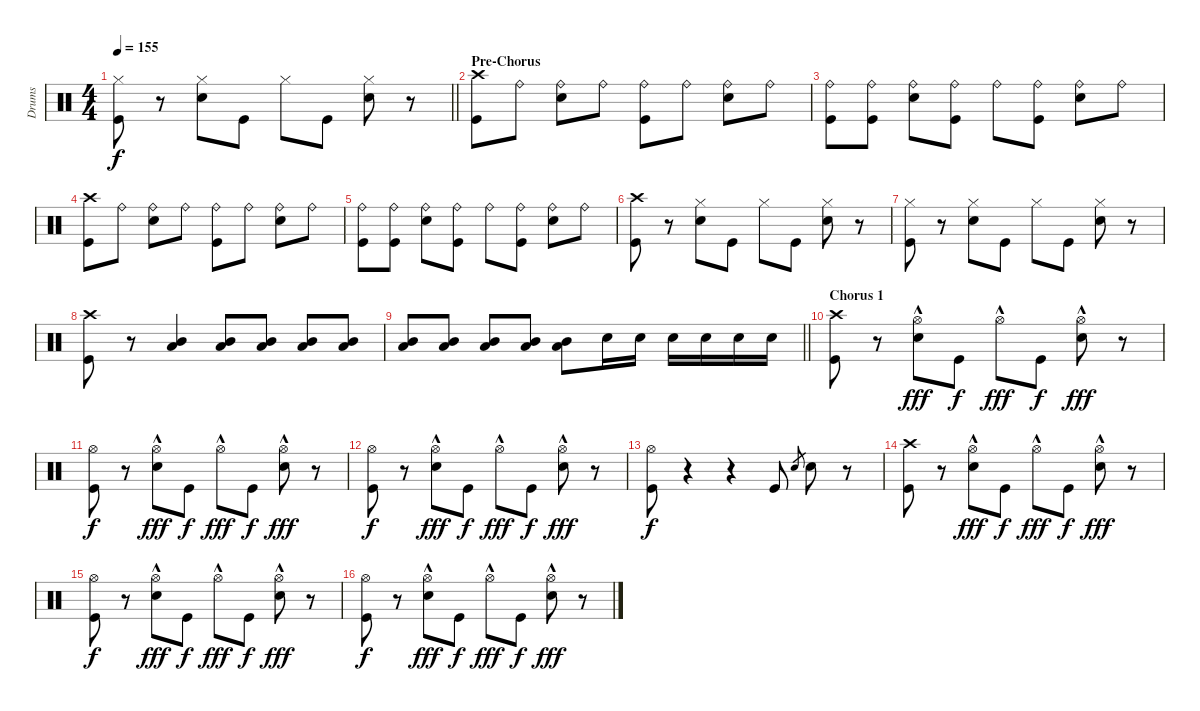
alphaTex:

\track ("Drums" "Drums") {instrument percussion}
\staff {score}
\articulation defaults
\ts (4 4)
\tempo 155
\clef neutral
\barLineRight lightlight
\ks c
("Hi-Hat (closed)" "Kick (hit)").8{dy f} r.8 ("Hi-Hat (closed)" "Snare (hit) 2").8 "Kick (hit)".8 "Hi-Hat (closed)".8 "Kick (hit)".8 ("Hi-Hat (closed)" "Snare (hit) 2").8 r.8 |
\section ("" "Pre-Chorus")
("Crash high (hit)" "Kick (hit)").8 "Ride (bell)".8 ("Ride (bell)" "Snare (hit) 2").8 "Ride (bell)".8 ("Ride (bell)" "Kick (hit)").8 "Ride (bell)".8 ("Ride (bell)" "Snare (hit) 2").8 "Ride (bell)".8 |
("Ride (bell)" "Kick (hit)").8 ("Ride (bell)" "Kick (hit)").8 ("Ride (bell)" "Snare (hit) 2").8 ("Ride (bell)" "Kick (hit)").8 "Ride (bell)".8 ("Ride (bell)" "Kick (hit)").8 ("Ride (bell)" "Snare (hit) 2").8 "Ride (bell)".8 |
("Crash high (hit)" "Kick (hit)").8 "Ride (bell)".8 ("Ride (bell)" "Snare (hit) 2").8 "Ride (bell)".8 ("Ride (bell)" "Kick (hit)").8 "Ride (bell)".8 ("Ride (bell)" "Snare (hit) 2").8 "Ride (bell)".8 |
("Ride (bell)" "Kick (hit)").8 ("Ride (bell)" "Kick (hit)").8 ("Ride (bell)" "Snare (hit) 2").8 ("Ride (bell)" "Kick (hit)").8 "Ride (bell)".8 ("Ride (bell)" "Kick (hit)").8 ("Ride (bell)" "Snare (hit) 2").8 "Ride (bell)".8 |
("Crash high (hit)" "Kick (hit)").8 r.8 ("Hi-Hat (closed)" "Snare (hit) 2").8 "Kick (hit)".8 "Hi-Hat (closed)".8 "Kick (hit)".8 ("Hi-Hat (closed)" "Snare (hit) 2").8 r.8 |
("Hi-Hat (closed)" "Kick (hit)").8 r.8 ("Hi-Hat (closed)" "Snare (hit) 2").8 "Kick (hit)".8 "Hi-Hat (closed)".8 "Kick (hit)".8 ("Hi-Hat (closed)" "Snare (hit) 2").8 r.8 |
("Crash high (hit)" "Kick (hit)").8 r.8 ("Mid Tom (hit)" "Low Floor Tom (hit)").4 ("Mid Tom (hit)" "Low Floor Tom (hit)").8 ("Mid Tom (hit)" "Low Floor Tom (hit)").8 ("Mid Tom (hit)" "Low Floor Tom (hit)").8 ("Mid Tom (hit)" "Low Floor Tom (hit)").8 |
\barLineRight lightlight
("Mid Tom (hit)" "Low Floor Tom (hit)").8 ("Mid Tom (hit)" "Low Floor Tom (hit)").8 ("Mid Tom (hit)" "Low Floor Tom (hit)").8 ("Mid Tom (hit)" "Low Floor Tom (hit)").8 ("Mid Tom (hit)" "Low Floor Tom (hit)").8 "Snare (hit) 2".16 "Snare (hit) 2".16 "Snare (hit) 2".16 "Snare (hit) 2".16 "Snare (hit) 2".16 "Snare (hit) 2".16 |
\section ("" "Chorus 1")
("Crash high (hit)" "Kick (hit)").8 r.8 ("Hi-Hat (open)"{hac} "Snare (hit) 2").8{dy fff} "Kick (hit)".8{dy f} "Hi-Hat (open)"{hac}.8{dy fff} "Kick (hit)".8{dy f} ("Hi-Hat (open)"{hac} "Snare (hit) 2").8{dy fff} r.8 |
("Hi-Hat (open)" "Kick (hit)").8{dy f} r.8 ("Hi-Hat (open)"{hac} "Snare (hit) 2").8{dy fff} "Kick (hit)".8{dy f} "Hi-Hat (open)"{hac}.8{dy fff} "Kick (hit)".8{dy f} ("Hi-Hat (open)"{hac} "Snare (hit) 2").8{dy fff} r.8 |
("Hi-Hat (open)" "Kick (hit)").8{dy f} r.8 ("Hi-Hat (open)"{hac} "Snare (hit) 2").8{dy fff} "Kick (hit)".8{dy f} "Hi-Hat (open)"{hac}.8{dy fff} "Kick (hit)".8{dy f} ("Hi-Hat (open)"{hac} "Snare (hit) 2").8{dy fff} r.8 |
("Hi-Hat (open)" "Kick (hit)").8{dy f} r.4 r.4 "Kick (hit)".8 "Snare (hit) 2".8{gr} "Snare (hit) 2".8 r.8 |
("Crash high (hit)" "Kick (hit)").8 r.8 ("Hi-Hat (open)"{hac} "Snare (hit) 2").8{dy fff} "Kick (hit)".8{dy f} "Hi-Hat (open)"{hac}.8{dy fff} "Kick (hit)".8{dy f} ("Hi-Hat (open)"{hac} "Snare (hit) 2").8{dy fff} r.8 |
("Hi-Hat (open)" "Kick (hit)").8{dy f} r.8 ("Hi-Hat (open)"{hac} "Snare (hit) 2").8{dy fff} "Kick (hit)".8{dy f} "Hi-Hat (open)"{hac}.8{dy fff} "Kick (hit)".8{dy f} ("Hi-Hat (open)"{hac} "Snare (hit) 2").8{dy fff} r.8 |
("Hi-Hat (open)" "Kick (hit)").8{dy f} r.8 ("Hi-Hat (open)"{hac} "Snare (hit) 2").8{dy fff} "Kick (hit)".8{dy f} "Hi-Hat (open)"{hac}.8{dy fff} "Kick (hit)".8{dy f} ("Hi-Hat (open)"{hac} "Snare (hit) 2").8{dy fff} r.8
